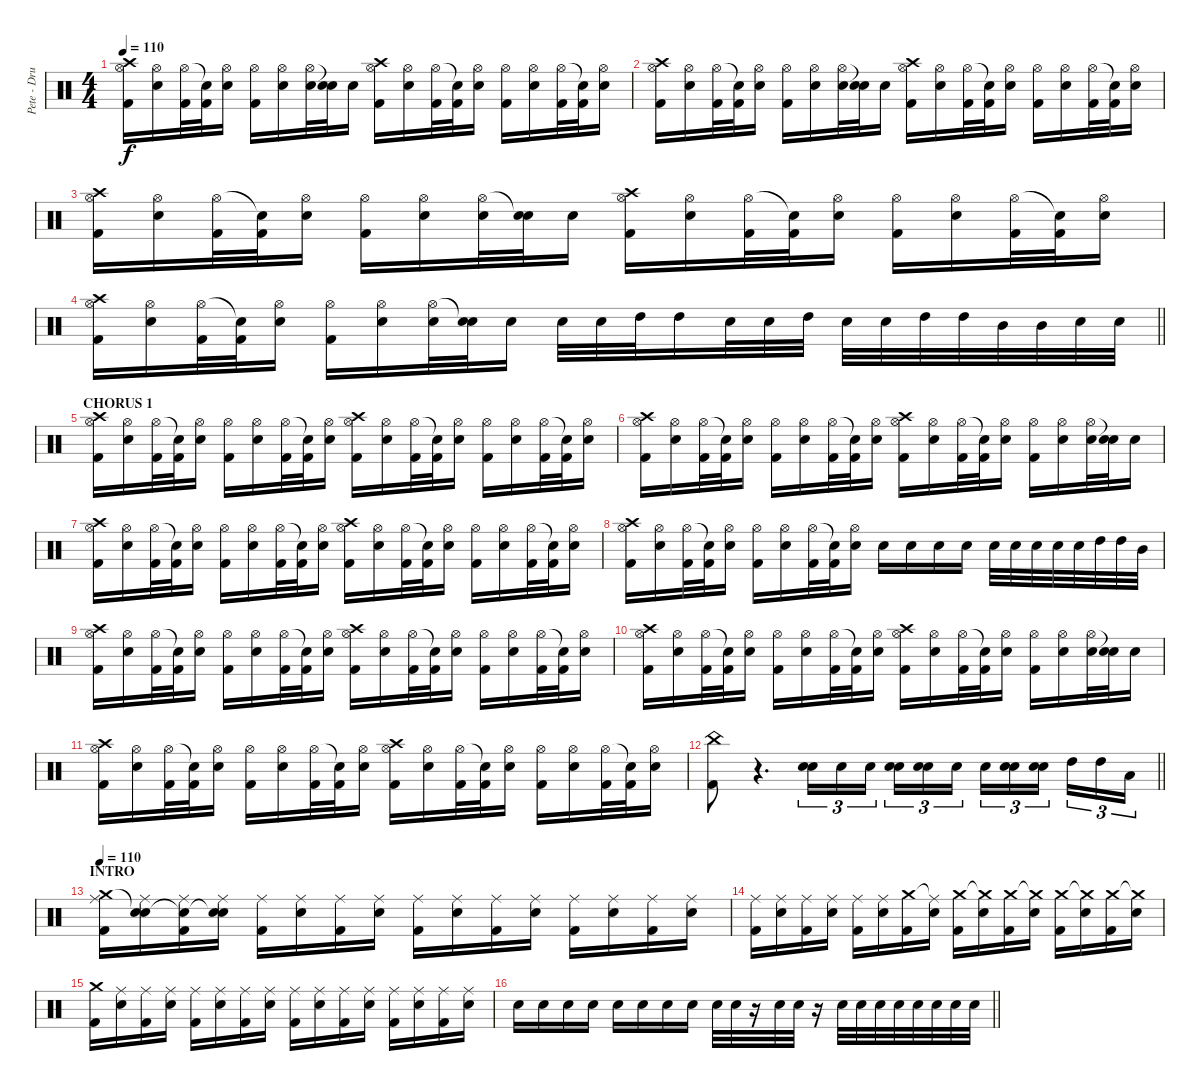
\track ("Pete - Drums" "Pete - Dru") {instrument percussion}
\staff {score}
\articulation defaults
\ts (4 4)
\tempo 110
\clef neutral
\ks c
("Crash high (hit)" "Hi-Hat (open)" "Kick (hit) 2").16{dy f} ("Hi-Hat (open)" "Electric Snare (hit)").16 ("Hi-Hat (open)" "Kick (hit) 2").32 ("Snare (hit)"{t} "Kick (hit) 2").32 ("Hi-Hat (open)" "Electric Snare (hit)").16 ("Hi-Hat (open)" "Kick (hit) 2").16 ("Hi-Hat (open)" "Electric Snare (hit)").16 ("Hi-Hat (open)" "Electric Snare (hit)").32 ("Snare (hit)"{t} "Electric Snare (hit)").32 "Electric Snare (hit)".16 ("Crash high (hit)" "Hi-Hat (open)" "Kick (hit) 2").16 ("Hi-Hat (open)" "Electric Snare (hit)").16 ("Hi-Hat (open)" "Kick (hit) 2").32 ("Snare (hit)"{t} "Kick (hit) 2").32 ("Hi-Hat (open)" "Electric Snare (hit)").16 ("Hi-Hat (open)" "Kick (hit) 2").16 ("Hi-Hat (open)" "Electric Snare (hit)").16 ("Hi-Hat (open)" "Kick (hit) 2").32 ("Snare (hit)"{t} "Kick (hit) 2").32 ("Hi-Hat (open)" "Electric Snare (hit)").16 |
("Crash high (hit)" "Hi-Hat (open)" "Kick (hit) 2").16 ("Hi-Hat (open)" "Electric Snare (hit)").16 ("Hi-Hat (open)" "Kick (hit) 2").32 ("Snare (hit)"{t} "Kick (hit) 2").32 ("Hi-Hat (open)" "Electric Snare (hit)").16 ("Hi-Hat (open)" "Kick (hit) 2").16 ("Hi-Hat (open)" "Electric Snare (hit)").16 ("Hi-Hat (open)" "Electric Snare (hit)").32 ("Snare (hit)"{t} "Electric Snare (hit)").32 "Electric Snare (hit)".16 ("Crash high (hit)" "Hi-Hat (open)" "Kick (hit) 2").16 ("Hi-Hat (open)" "Electric Snare (hit)").16 ("Hi-Hat (open)" "Kick (hit) 2").32 ("Snare (hit)"{t} "Kick (hit) 2").32 ("Hi-Hat (open)" "Electric Snare (hit)").16 ("Hi-Hat (open)" "Kick (hit) 2").16 ("Hi-Hat (open)" "Electric Snare (hit)").16 ("Hi-Hat (open)" "Kick (hit) 2").32 ("Snare (hit)"{t} "Kick (hit) 2").32 ("Hi-Hat (open)" "Electric Snare (hit)").16 |
("Crash high (hit)" "Hi-Hat (open)" "Kick (hit) 2").16 ("Hi-Hat (open)" "Electric Snare (hit)").16 ("Hi-Hat (open)" "Kick (hit) 2").32 ("Snare (hit)"{t} "Kick (hit) 2").32 ("Hi-Hat (open)" "Electric Snare (hit)").16 ("Hi-Hat (open)" "Kick (hit) 2").16 ("Hi-Hat (open)" "Electric Snare (hit)").16 ("Hi-Hat (open)" "Electric Snare (hit)").32 ("Snare (hit)"{t} "Electric Snare (hit)").32 "Electric Snare (hit)".16 ("Crash high (hit)" "Hi-Hat (open)" "Kick (hit) 2").16 ("Hi-Hat (open)" "Electric Snare (hit)").16 ("Hi-Hat (open)" "Kick (hit) 2").32 ("Snare (hit)"{t} "Kick (hit) 2").32 ("Hi-Hat (open)" "Electric Snare (hit)").16 ("Hi-Hat (open)" "Kick (hit) 2").16 ("Hi-Hat (open)" "Electric Snare (hit)").16 ("Hi-Hat (open)" "Kick (hit) 2").32 ("Snare (hit)"{t} "Kick (hit) 2").32 ("Hi-Hat (open)" "Electric Snare (hit)").16 |
\barLineRight lightlight
("Crash high (hit)" "Hi-Hat (open)" "Kick (hit) 2").16 ("Hi-Hat (open)" "Electric Snare (hit)").16 ("Hi-Hat (open)" "Kick (hit) 2").32 ("Snare (hit)"{t} "Kick (hit) 2").32 ("Hi-Hat (open)" "Electric Snare (hit)").16 ("Hi-Hat (open)" "Kick (hit) 2").16 ("Hi-Hat (open)" "Electric Snare (hit)").16 ("Hi-Hat (open)" "Electric Snare (hit)").32 ("Snare (hit)"{t} "Electric Snare (hit)").32 "Electric Snare (hit)".16 "Electric Snare (hit)".32 "Electric Snare (hit)".32 "High Tom (hit)".32 "High Tom (hit)".16 "Electric Snare (hit)".32 "Electric Snare (hit)".32 "High Tom (hit)".32 "Electric Snare (hit)".32 "Electric Snare (hit)".32 "High Tom (hit)".32 "High Tom (hit)".32 "Mid Tom (hit)".32 "Mid Tom (hit)".32 "Electric Snare (hit)".32 "Electric Snare (hit)".32 |
\section ("" "CHORUS 1")
("Crash high (hit)" "Hi-Hat (open)" "Kick (hit) 2").16 ("Hi-Hat (open)" "Electric Snare (hit)").16 ("Hi-Hat (open)" "Kick (hit) 2").32 ("Snare (hit)"{t} "Kick (hit) 2").32 ("Hi-Hat (open)" "Electric Snare (hit)").16 ("Hi-Hat (open)" "Kick (hit) 2").16 ("Hi-Hat (open)" "Electric Snare (hit)").16 ("Hi-Hat (open)" "Kick (hit) 2").32 ("Snare (hit)"{t} "Kick (hit) 2").32 ("Hi-Hat (open)" "Electric Snare (hit)").16 ("Crash high (hit)" "Hi-Hat (open)" "Kick (hit) 2").16 ("Hi-Hat (open)" "Electric Snare (hit)").16 ("Hi-Hat (open)" "Kick (hit) 2").32 ("Snare (hit)"{t} "Kick (hit) 2").32 ("Hi-Hat (open)" "Electric Snare (hit)").16 ("Hi-Hat (open)" "Kick (hit) 2").16 ("Hi-Hat (open)" "Electric Snare (hit)").16 ("Hi-Hat (open)" "Kick (hit) 2").32 ("Snare (hit)"{t} "Kick (hit) 2").32 ("Hi-Hat (open)" "Electric Snare (hit)").16 |
("Crash high (hit)" "Hi-Hat (open)" "Kick (hit) 2").16 ("Hi-Hat (open)" "Electric Snare (hit)").16 ("Hi-Hat (open)" "Kick (hit) 2").32 ("Snare (hit)"{t} "Kick (hit) 2").32 ("Hi-Hat (open)" "Electric Snare (hit)").16 ("Hi-Hat (open)" "Kick (hit) 2").16 ("Hi-Hat (open)" "Electric Snare (hit)").16 ("Hi-Hat (open)" "Kick (hit) 2").32 ("Snare (hit)"{t} "Kick (hit) 2").32 ("Hi-Hat (open)" "Electric Snare (hit)").16 ("Crash high (hit)" "Hi-Hat (open)" "Kick (hit) 2").16 ("Hi-Hat (open)" "Electric Snare (hit)").16 ("Hi-Hat (open)" "Kick (hit) 2").32 ("Snare (hit)"{t} "Kick (hit) 2").32 ("Hi-Hat (open)" "Electric Snare (hit)").16 ("Hi-Hat (open)" "Kick (hit) 2").16 ("Hi-Hat (open)" "Electric Snare (hit)").16 ("Hi-Hat (open)" "Electric Snare (hit)").32 ("Snare (hit)"{t} "Electric Snare (hit)").32 "Electric Snare (hit)".16 |
("Crash high (hit)" "Hi-Hat (open)" "Kick (hit) 2").16 ("Hi-Hat (open)" "Electric Snare (hit)").16 ("Hi-Hat (open)" "Kick (hit) 2").32 ("Snare (hit)"{t} "Kick (hit) 2").32 ("Hi-Hat (open)" "Electric Snare (hit)").16 ("Hi-Hat (open)" "Kick (hit) 2").16 ("Hi-Hat (open)" "Electric Snare (hit)").16 ("Hi-Hat (open)" "Kick (hit) 2").32 ("Snare (hit)"{t} "Kick (hit) 2").32 ("Hi-Hat (open)" "Electric Snare (hit)").16 ("Crash high (hit)" "Hi-Hat (open)" "Kick (hit) 2").16 ("Hi-Hat (open)" "Electric Snare (hit)").16 ("Hi-Hat (open)" "Kick (hit) 2").32 ("Snare (hit)"{t} "Kick (hit) 2").32 ("Hi-Hat (open)" "Electric Snare (hit)").16 ("Hi-Hat (open)" "Kick (hit) 2").16 ("Hi-Hat (open)" "Electric Snare (hit)").16 ("Hi-Hat (open)" "Kick (hit) 2").32 ("Snare (hit)"{t} "Kick (hit) 2").32 ("Hi-Hat (open)" "Electric Snare (hit)").16 |
("Crash high (hit)" "Hi-Hat (open)" "Kick (hit) 2").16 ("Hi-Hat (open)" "Electric Snare (hit)").16 ("Hi-Hat (open)" "Kick (hit) 2").32 ("Snare (hit)"{t} "Kick (hit) 2").32 ("Hi-Hat (open)" "Electric Snare (hit)").16 ("Hi-Hat (open)" "Kick (hit) 2").16 ("Hi-Hat (open)" "Electric Snare (hit)").16 ("Hi-Hat (open)" "Kick (hit) 2").32 ("Snare (hit)"{t} "Kick (hit) 2").32 ("Hi-Hat (open)" "Electric Snare (hit)").16 "Electric Snare (hit)".16 "Electric Snare (hit)".16 "Electric Snare (hit)".16 "Electric Snare (hit)".16 "Electric Snare (hit)".32 "Electric Snare (hit)".32 "Electric Snare (hit)".32 "Electric Snare (hit)".32 "Electric Snare (hit)".32 "High Tom (hit)".32 "High Tom (hit)".32 "Mid Tom (hit)".32 |
("Crash high (hit)" "Hi-Hat (open)" "Kick (hit) 2").16 ("Hi-Hat (open)" "Electric Snare (hit)").16 ("Hi-Hat (open)" "Kick (hit) 2").32 ("Snare (hit)"{t} "Kick (hit) 2").32 ("Hi-Hat (open)" "Electric Snare (hit)").16 ("Hi-Hat (open)" "Kick (hit) 2").16 ("Hi-Hat (open)" "Electric Snare (hit)").16 ("Hi-Hat (open)" "Kick (hit) 2").32 ("Snare (hit)"{t} "Kick (hit) 2").32 ("Hi-Hat (open)" "Electric Snare (hit)").16 ("Crash high (hit)" "Hi-Hat (open)" "Kick (hit) 2").16 ("Hi-Hat (open)" "Electric Snare (hit)").16 ("Hi-Hat (open)" "Kick (hit) 2").32 ("Snare (hit)"{t} "Kick (hit) 2").32 ("Hi-Hat (open)" "Electric Snare (hit)").16 ("Hi-Hat (open)" "Kick (hit) 2").16 ("Hi-Hat (open)" "Electric Snare (hit)").16 ("Hi-Hat (open)" "Kick (hit) 2").32 ("Snare (hit)"{t} "Kick (hit) 2").32 ("Hi-Hat (open)" "Electric Snare (hit)").16 |
("Crash high (hit)" "Hi-Hat (open)" "Kick (hit) 2").16 ("Hi-Hat (open)" "Electric Snare (hit)").16 ("Hi-Hat (open)" "Kick (hit) 2").32 ("Snare (hit)"{t} "Kick (hit) 2").32 ("Hi-Hat (open)" "Electric Snare (hit)").16 ("Hi-Hat (open)" "Kick (hit) 2").16 ("Hi-Hat (open)" "Electric Snare (hit)").16 ("Hi-Hat (open)" "Kick (hit) 2").32 ("Snare (hit)"{t} "Kick (hit) 2").32 ("Hi-Hat (open)" "Electric Snare (hit)").16 ("Crash high (hit)" "Hi-Hat (open)" "Kick (hit) 2").16 ("Hi-Hat (open)" "Electric Snare (hit)").16 ("Hi-Hat (open)" "Kick (hit) 2").32 ("Snare (hit)"{t} "Kick (hit) 2").32 ("Hi-Hat (open)" "Electric Snare (hit)").16 ("Hi-Hat (open)" "Kick (hit) 2").16 ("Hi-Hat (open)" "Electric Snare (hit)").16 ("Hi-Hat (open)" "Electric Snare (hit)").32 ("Snare (hit)"{t} "Electric Snare (hit)").32 "Electric Snare (hit)".16 |
("Crash high (hit)" "Hi-Hat (open)" "Kick (hit) 2").16 ("Hi-Hat (open)" "Electric Snare (hit)").16 ("Hi-Hat (open)" "Kick (hit) 2").32 ("Snare (hit)"{t} "Kick (hit) 2").32 ("Hi-Hat (open)" "Electric Snare (hit)").16 ("Hi-Hat (open)" "Kick (hit) 2").16 ("Hi-Hat (open)" "Electric Snare (hit)").16 ("Hi-Hat (open)" "Kick (hit) 2").32 ("Snare (hit)"{t} "Kick (hit) 2").32 ("Hi-Hat (open)" "Electric Snare (hit)").16 ("Crash high (hit)" "Hi-Hat (open)" "Kick (hit) 2").16 ("Hi-Hat (open)" "Electric Snare (hit)").16 ("Hi-Hat (open)" "Kick (hit) 2").32 ("Snare (hit)"{t} "Kick (hit) 2").32 ("Hi-Hat (open)" "Electric Snare (hit)").16 ("Hi-Hat (open)" "Kick (hit) 2").16 ("Hi-Hat (open)" "Electric Snare (hit)").16 ("Hi-Hat (open)" "Kick (hit) 2").32 ("Snare (hit)"{t} "Kick (hit) 2").32 ("Hi-Hat (open)" "Electric Snare (hit)").16 |
\barLineRight lightlight
("China (hit)" "Kick (hit) 2").8 r.4{d} ("Electric Snare (hit)" "Electric Snare (hit)").16{tu (3 2)} "Electric Snare (hit)".16{tu (3 2)} "Electric Snare (hit)".16{tu (3 2)} ("Electric Snare (hit)" "Electric Snare (hit)").16{tu (3 2)} ("Electric Snare (hit)" "Electric Snare (hit)").16{tu (3 2)} "Electric Snare (hit)".16{tu (3 2)} "Electric Snare (hit)".16{tu (3 2)} ("Electric Snare (hit)" "Electric Snare (hit)").16{tu (3 2)} ("Electric Snare (hit)" "Electric Snare (hit)").16{tu (3 2)} "High Tom (hit)".16{tu (3 2)} "High Tom (hit)".16{tu (3 2)} "Low Tom (hit)".16{tu (3 2)} |
\section ("" "INTRO")
\tempo 110
("Crash medium (hit)" "Ride (middle)" "Kick (hit) 2").16 ("Snare (hit)"{t} "Ride (middle)" "Electric Snare (hit)").16 ("Snare (hit)"{t} "Ride (middle)" "Kick (hit) 2").16 ("Snare (hit)"{t} "Ride (middle)" "Electric Snare (hit)").16 ("Ride (middle)" "Kick (hit) 2").16 ("Ride (middle)" "Electric Snare (hit)").16 ("Ride (middle)" "Kick (hit) 2").16 ("Ride (middle)" "Electric Snare (hit)").16 ("Ride (middle)" "Kick (hit) 2").16 ("Ride (middle)" "Electric Snare (hit)").16 ("Ride (middle)" "Kick (hit) 2").16 ("Ride (middle)" "Electric Snare (hit)").16 ("Ride (middle)" "Kick (hit) 2").16 ("Ride (middle)" "Electric Snare (hit)").16 ("Ride (middle)" "Kick (hit) 2").16 ("Ride (middle)" "Electric Snare (hit)").16 |
("Ride (middle)" "Kick (hit) 2").16 ("Ride (middle)" "Electric Snare (hit)").16 ("Ride (middle)" "Kick (hit) 2").16 ("Ride (middle)" "Electric Snare (hit)").16 ("Ride (middle)" "Kick (hit) 2").16 ("Ride (middle)" "Electric Snare (hit)").16 ("Crash medium (hit)" "Kick (hit) 2").16 ("Ride (middle)"{t} "Electric Snare (hit)").16 ("Crash medium (hit)" "Kick (hit) 2").16 ("Crash medium (hit)"{t} "Electric Snare (hit)").16 ("Crash medium (hit)" "Kick (hit) 2").16 ("Crash medium (hit)"{t} "Electric Snare (hit)").16 ("Crash medium (hit)" "Kick (hit) 2").16 ("Crash medium (hit)"{t} "Electric Snare (hit)").16 ("Crash medium (hit)" "Kick (hit) 2").16 ("Crash medium (hit)"{t} "Electric Snare (hit)").16 |
("Crash medium (hit)" "Kick (hit) 2").16 ("Ride (middle)" "Electric Snare (hit)").16 ("Ride (middle)" "Kick (hit) 2").16 ("Ride (middle)" "Electric Snare (hit)").16 ("Ride (middle)" "Kick (hit) 2").16 ("Ride (middle)" "Electric Snare (hit)").16 ("Ride (middle)" "Kick (hit) 2").16 ("Ride (middle)" "Electric Snare (hit)").16 ("Ride (middle)" "Kick (hit) 2").16 ("Ride (middle)" "Electric Snare (hit)").16 ("Ride (middle)" "Kick (hit) 2").16 ("Ride (middle)" "Electric Snare (hit)").16 ("Ride (middle)" "Kick (hit) 2").16 ("Ride (middle)" "Electric Snare (hit)").16 ("Ride (middle)" "Kick (hit) 2").16 ("Ride (middle)" "Electric Snare (hit)").16 |
\barLineRight lightlight "Electric Snare (hit)".16 "Electric Snare (hit)".16 "Electric Snare (hit)".16 "Electric Snare (hit)".16 "Electric Snare (hit)".16 "Electric Snare (hit)".16 "Electric Snare (hit)".16 "Electric Snare (hit)".16 "Electric Snare (hit)".32 "Electric Snare (hit)".32
r.16 "Electric Snare (hit)".32 "Electric Snare (hit)".32 r.16 "Electric Snare (hit)".32 "Electric Snare (hit)".32 "Electric Snare (hit)".32 "Electric Snare (hit)".32 "Electric Snare (hit)".32 "Electric Snare (hit)".32 "Electric Snare (hit)".32 "Electric Snare (hit)".32
